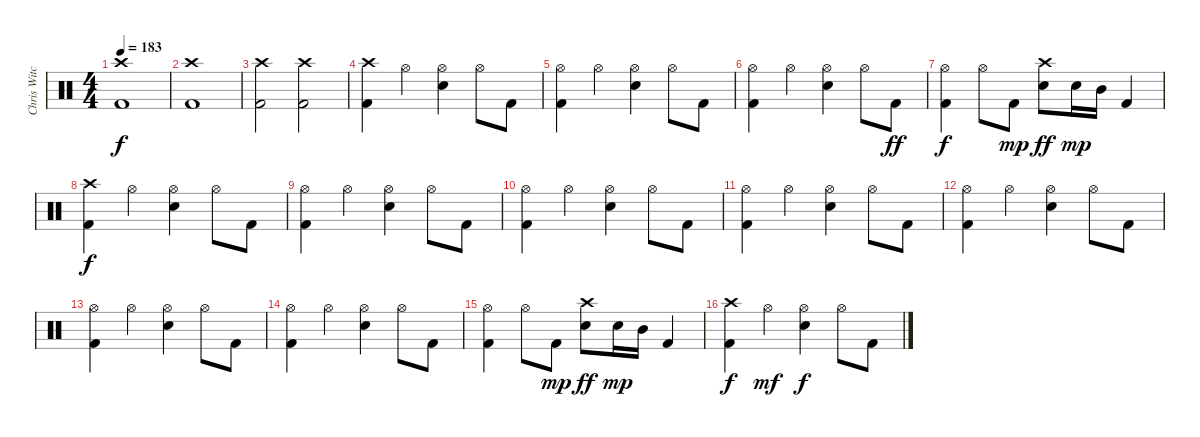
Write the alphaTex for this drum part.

\track ("Chris Witchunter" "Chris Witc") {instrument percussion}
\staff {score}
\articulation defaults
\ts (4 4)
\tempo 183
\clef neutral
\ks c
("Crash high (hit)" "Kick (hit) 2").1{dy f} |
("Crash high (hit)" "Kick (hit) 2").1 |
("Crash high (hit)" "Kick (hit) 2").2 ("Crash high (hit)" "Kick (hit) 2").2 |
("Crash high (hit)" "Kick (hit) 2").4 "Hi-Hat (open)".4 ("Hi-Hat (open)" "Snare (hit) 2").4 "Hi-Hat (open)".8 "Kick (hit) 2".8 |
("Hi-Hat (open)" "Kick (hit) 2").4 "Hi-Hat (open)".4 ("Hi-Hat (open)" "Snare (hit) 2").4 "Hi-Hat (open)".8 "Kick (hit) 2".8 |
("Hi-Hat (open)" "Kick (hit) 2").4 "Hi-Hat (open)".4 ("Hi-Hat (open)" "Snare (hit) 2").4 "Hi-Hat (open)".8 "Kick (hit) 2".8{dy ff} |
("Hi-Hat (open)" "Kick (hit) 2").4{dy f} "Hi-Hat (open)".8 "Kick (hit) 2".8{dy mp} ("Crash high (hit)" "Snare (hit) 2").8{dy ff} "Snare (hit) 2".16{dy mp} "Mid Tom (hit)".16 "Kick (hit) 2".4 |
("Crash high (hit)" "Kick (hit) 2").4{dy f} "Hi-Hat (open)".4 ("Hi-Hat (open)" "Snare (hit) 2").4 "Hi-Hat (open)".8 "Kick (hit) 2".8 |
("Hi-Hat (open)" "Kick (hit) 2").4 "Hi-Hat (open)".4 ("Hi-Hat (open)" "Snare (hit) 2").4 "Hi-Hat (open)".8 "Kick (hit) 2".8 |
("Hi-Hat (open)" "Kick (hit) 2").4 "Hi-Hat (open)".4 ("Hi-Hat (open)" "Snare (hit) 2").4 "Hi-Hat (open)".8 "Kick (hit) 2".8 |
("Hi-Hat (open)" "Kick (hit) 2").4 "Hi-Hat (open)".4 ("Hi-Hat (open)" "Snare (hit) 2").4 "Hi-Hat (open)".8 "Kick (hit) 2".8 |
("Hi-Hat (open)" "Kick (hit) 2").4 "Hi-Hat (open)".4 ("Hi-Hat (open)" "Snare (hit) 2").4 "Hi-Hat (open)".8 "Kick (hit) 2".8 |
("Hi-Hat (open)" "Kick (hit) 2").4 "Hi-Hat (open)".4 ("Hi-Hat (open)" "Snare (hit) 2").4 "Hi-Hat (open)".8 "Kick (hit) 2".8 |
("Hi-Hat (open)" "Kick (hit) 2").4 "Hi-Hat (open)".4 ("Hi-Hat (open)" "Snare (hit) 2").4 "Hi-Hat (open)".8 "Kick (hit) 2".8 |
("Hi-Hat (open)" "Kick (hit) 2").4 "Hi-Hat (open)".8 "Kick (hit) 2".8{dy mp} ("Crash high (hit)" "Snare (hit) 2").8{dy ff} "Snare (hit) 2".16{dy mp} "Mid Tom (hit)".16 "Kick (hit) 2".4 |
("Crash high (hit)" "Kick (hit) 2").4{dy f} "Hi-Hat (open)".4{dy mf} ("Hi-Hat (open)" "Snare (hit) 2").4{dy f} "Hi-Hat (open)".8 "Kick (hit) 2".8
